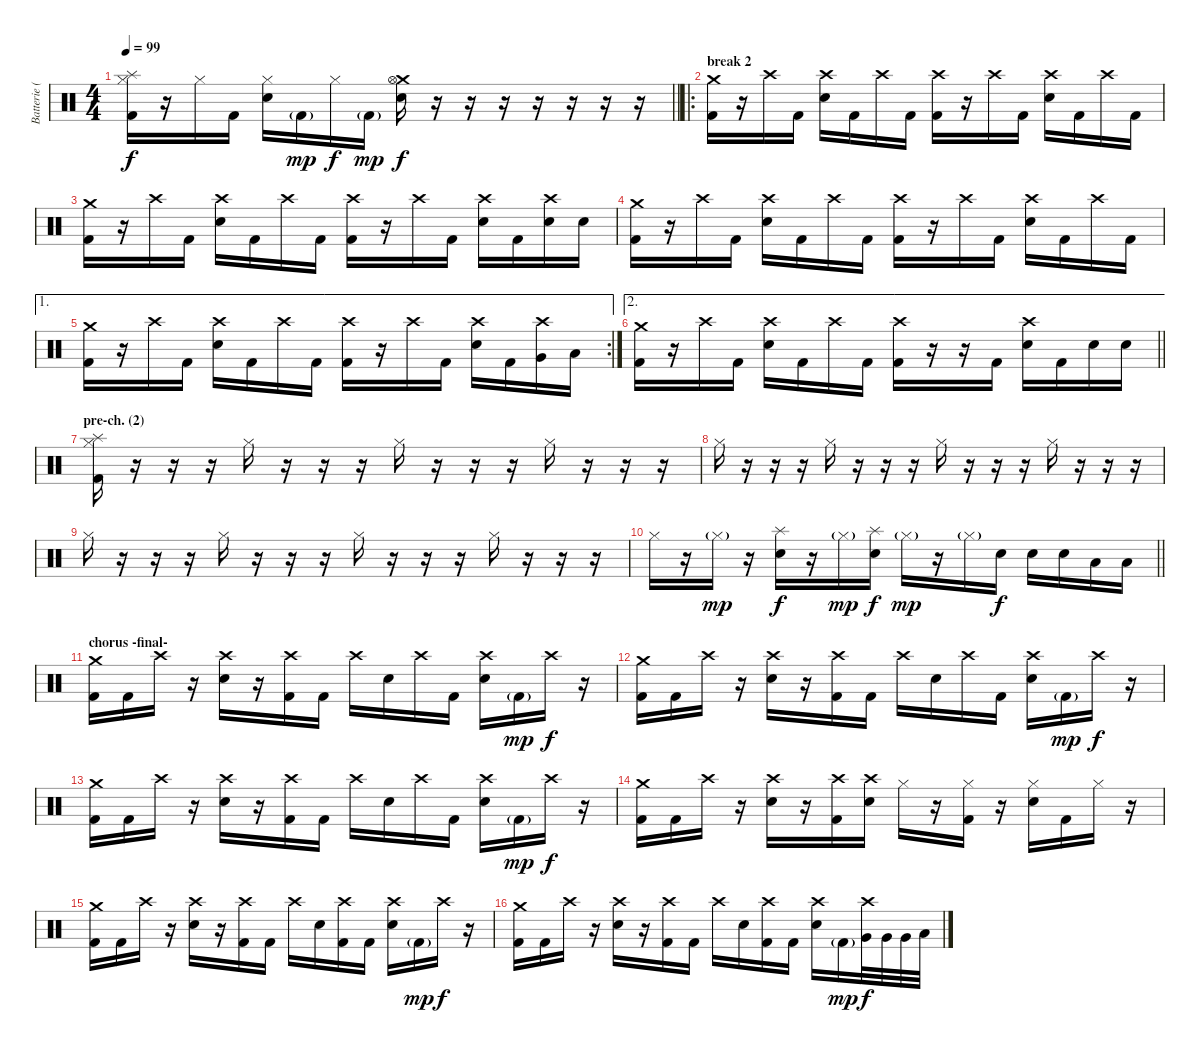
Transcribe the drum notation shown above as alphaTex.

\track ("Batterie (John)" "Batterie (") {instrument percussion}
\staff {score}
\articulation defaults
\ts (4 4)
\tempo 99
\clef neutral
\barLineRight lightlight
\ks c
("Splash (hit)" "Hi-Hat (closed)" "Kick (hit) 2").16{dy f} r.16 "Hi-Hat (closed)".16 "Kick (hit) 2".16 ("Hi-Hat (closed)" "Electric Snare (hit)").16 "Kick (hit) 2"{g}.16{dy mp} "Hi-Hat (closed)".16{dy f} "Kick (hit) 2"{g}.16{dy mp} ("Crash medium (hit)" "Hi-Hat (open)" "Electric Snare (hit)").16{dy f} r.16 r.16 r.16 r.16 r.16 r.16 r.16 |
\ro
\section ("" "break 2")
("Crash medium (hit)" "Kick (hit) 2").16 r.16 "Crash high (hit)".16 "Kick (hit) 2".16 ("Crash high (hit)" "Electric Snare (hit)").16 "Kick (hit) 2".16 "Crash high (hit)".16 "Kick (hit) 2".16 ("Crash high (hit)" "Kick (hit) 2").16 r.16 "Crash high (hit)".16 "Kick (hit) 2".16 ("Crash high (hit)" "Electric Snare (hit)").16 "Kick (hit) 2".16 "Crash high (hit)".16 "Kick (hit) 2".16 |
("Crash medium (hit)" "Kick (hit) 2").16 r.16 "Crash high (hit)".16 "Kick (hit) 2".16 ("Crash high (hit)" "Electric Snare (hit)").16 "Kick (hit) 2".16 "Crash high (hit)".16 "Kick (hit) 2".16 ("Crash high (hit)" "Kick (hit) 2").16 r.16 "Crash high (hit)".16 "Kick (hit) 2".16 ("Crash high (hit)" "Electric Snare (hit)").16 "Kick (hit) 2".16 ("Crash high (hit)" "Electric Snare (hit)").16 "Electric Snare (hit)".16 |
("Crash medium (hit)" "Kick (hit) 2").16 r.16 "Crash high (hit)".16 "Kick (hit) 2".16 ("Crash high (hit)" "Electric Snare (hit)").16 "Kick (hit) 2".16 "Crash high (hit)".16 "Kick (hit) 2".16 ("Crash high (hit)" "Kick (hit) 2").16 r.16 "Crash high (hit)".16 "Kick (hit) 2".16 ("Crash high (hit)" "Electric Snare (hit)").16 "Kick (hit) 2".16 "Crash high (hit)".16 "Kick (hit) 2".16 |
\ae 1
\rc 2
("Crash medium (hit)" "Kick (hit) 2").16 r.16 "Crash high (hit)".16 "Kick (hit) 2".16 ("Crash high (hit)" "Electric Snare (hit)").16 "Kick (hit) 2".16 "Crash high (hit)".16 "Kick (hit) 2".16 ("Crash high (hit)" "Kick (hit) 2").16 r.16 "Crash high (hit)".16 "Kick (hit) 2".16 ("Crash high (hit)" "Electric Snare (hit)").16 "Kick (hit) 2".16 ("Crash high (hit)" "Very Low Tom (hit)").16 "Low Floor Tom (hit)".16 |
\ae 2
\barLineRight lightlight
("Crash medium (hit)" "Kick (hit) 2").16 r.16 "Crash high (hit)".16 "Kick (hit) 2".16 ("Crash high (hit)" "Electric Snare (hit)").16 "Kick (hit) 2".16 "Crash high (hit)".16 "Kick (hit) 2".16 ("Crash high (hit)" "Kick (hit) 2").16 r.16 r.16 "Kick (hit) 2".16 ("Crash high (hit)" "Electric Snare (hit)").16 "Kick (hit) 2".16 "Electric Snare (hit)".16 "Electric Snare (hit)".16 |
\section ("" "pre-ch. (2)")
("Splash (hit)" "Hi-Hat (closed)" "Kick (hit) 2").16 r.16 r.16 r.16 "Hi-Hat (closed)".16 r.16 r.16 r.16 "Hi-Hat (closed)".16 r.16 r.16 r.16 "Hi-Hat (closed)".16 r.16 r.16 r.16 |
"Hi-Hat (closed)".16 r.16 r.16 r.16 "Hi-Hat (closed)".16 r.16 r.16 r.16 "Hi-Hat (closed)".16 r.16 r.16 r.16 "Hi-Hat (closed)".16 r.16 r.16 r.16 |
"Hi-Hat (closed)".16 r.16 r.16 r.16 "Hi-Hat (closed)".16 r.16 r.16 r.16 "Hi-Hat (closed)".16 r.16 r.16 r.16 "Hi-Hat (closed)".16 r.16 r.16 r.16 |
\barLineRight lightlight "Hi-Hat (closed)".16
r.16 "Hi-Hat (closed)"{g}.16{dy mp} r.16 ("Splash (hit)" "Electric Snare (hit)").16{dy f} r.16 "Hi-Hat (closed)"{g}.16{dy mp} ("Splash (hit)" "Electric Snare (hit)").16{dy f} "Hi-Hat (closed)"{g}.16{dy mp} r.16 "Hi-Hat (closed)"{g}.16 "Electric Snare (hit)".16{dy f} "Electric Snare (hit)".16 "Electric Snare (hit)".16 "Low Floor Tom (hit)".16 "Low Floor Tom (hit)".16 |
\section ("" "chorus -final-")
("Crash medium (hit)" "Kick (hit) 2").16 "Kick (hit) 2".16 "Crash high (hit)".16 r.16 ("Crash high (hit)" "Electric Snare (hit)").16 r.16 ("Crash high (hit)" "Kick (hit) 2").16 "Kick (hit) 2".16 "Crash high (hit)".16 "Electric Snare (hit)".16 "Crash high (hit)".16 "Kick (hit) 2".16 ("Crash high (hit)" "Electric Snare (hit)").16 "Kick (hit) 2"{g}.16{dy mp} "Crash high (hit)".16{dy f} r.16 |
("Crash medium (hit)" "Kick (hit) 2").16 "Kick (hit) 2".16 "Crash high (hit)".16 r.16 ("Crash high (hit)" "Electric Snare (hit)").16 r.16 ("Crash high (hit)" "Kick (hit) 2").16 "Kick (hit) 2".16 "Crash high (hit)".16 "Electric Snare (hit)".16 "Crash high (hit)".16 "Kick (hit) 2".16 ("Crash high (hit)" "Electric Snare (hit)").16 "Kick (hit) 2"{g}.16{dy mp} "Crash high (hit)".16{dy f} r.16 |
("Crash medium (hit)" "Kick (hit) 2").16 "Kick (hit) 2".16 "Crash high (hit)".16 r.16 ("Crash high (hit)" "Electric Snare (hit)").16 r.16 ("Crash high (hit)" "Kick (hit) 2").16 "Kick (hit) 2".16 "Crash high (hit)".16 "Electric Snare (hit)".16 "Crash high (hit)".16 "Kick (hit) 2".16 ("Crash high (hit)" "Electric Snare (hit)").16 "Kick (hit) 2"{g}.16{dy mp} "Crash high (hit)".16{dy f} r.16 |
("Crash medium (hit)" "Kick (hit) 2").16 "Kick (hit) 2".16 "Crash high (hit)".16 r.16 ("Crash high (hit)" "Electric Snare (hit)").16 r.16 ("Crash high (hit)" "Kick (hit) 2").16 ("Crash high (hit)" "Electric Snare (hit)").16 "Hi-Hat (closed)".16 r.16 ("Hi-Hat (closed)" "Kick (hit) 2").16 r.16 ("Hi-Hat (closed)" "Electric Snare (hit)").16 "Kick (hit) 2".16 "Hi-Hat (closed)".16 r.16 |
("Crash medium (hit)" "Kick (hit) 2").16 "Kick (hit) 2".16 "Crash high (hit)".16 r.16 ("Crash high (hit)" "Electric Snare (hit)").16 r.16 ("Crash high (hit)" "Kick (hit) 2").16 "Kick (hit) 2".16 "Crash high (hit)".16 "Electric Snare (hit)".16 ("Crash high (hit)" "Kick (hit) 2").16 "Kick (hit) 2".16 ("Crash high (hit)" "Electric Snare (hit)").16 "Kick (hit) 2"{g}.16{dy mp} "Crash high (hit)".16{dy f} r.16 |
("Crash medium (hit)" "Kick (hit) 2").16 "Kick (hit) 2".16 "Crash high (hit)".16 r.16 ("Crash high (hit)" "Electric Snare (hit)").16 r.16 ("Crash high (hit)" "Kick (hit) 2").16 "Kick (hit) 2".16 "Crash high (hit)".16 "Electric Snare (hit)".16 ("Crash high (hit)" "Kick (hit) 2").16 "Kick (hit) 2".16 ("Crash high (hit)" "Electric Snare (hit)").16 "Kick (hit) 2"{g}.16{dy mp} ("Crash high (hit)" "Very Low Tom (hit)").32{dy f} "Very Low Tom (hit)".32 "Very Low Tom (hit)".32 "Low Floor Tom (hit)".32
